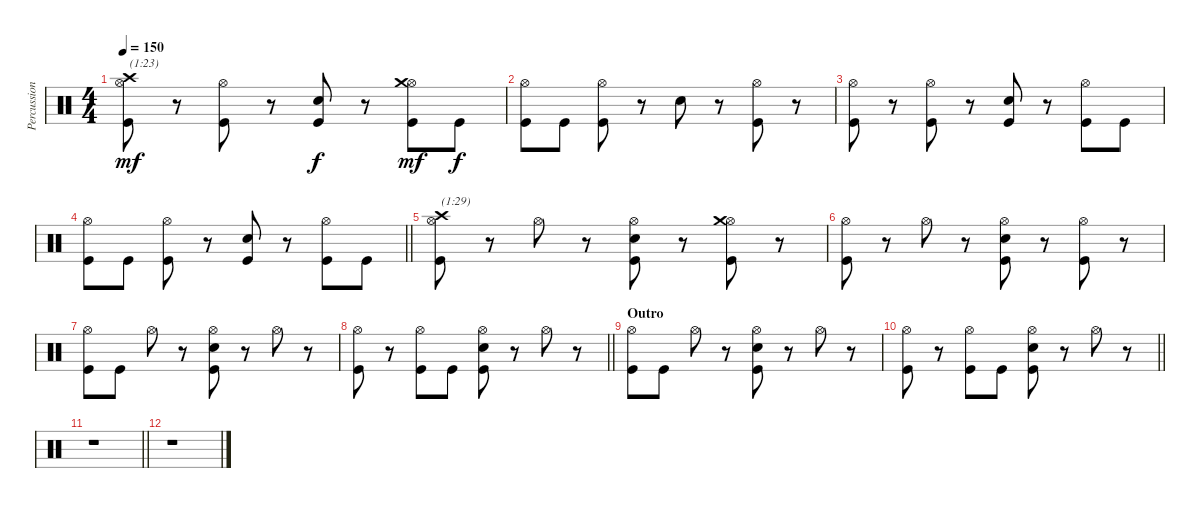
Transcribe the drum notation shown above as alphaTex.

\track ("Percussion" "Percussion") {instrument percussion}
\staff {score}
\articulation defaults
\ts (4 4)
\section ("" "")
\tempo 150
\clef neutral
\ks c
("Hi-Hat (open)" "Crash high (hit)" "Kick (hit)").8{txt "(1:23)" dy mf} r.8 ("Hi-Hat (open)" "Kick (hit)").8 r.8 ("Snare (hit) 2" "Kick (hit)").8{dy f} r.8 ("Hi-Hat (open)" "Crash medium (hit)" "Kick (hit)").8{dy mf} "Kick (hit)".8{dy f} |
("Hi-Hat (open)" "Kick (hit)").8 "Kick (hit)".8 ("Hi-Hat (open)" "Kick (hit)").8 r.8 "Snare (hit) 2".8 r.8 ("Hi-Hat (open)" "Kick (hit)").8 r.8 |
("Hi-Hat (open)" "Kick (hit)").8 r.8 ("Hi-Hat (open)" "Kick (hit)").8 r.8 ("Snare (hit) 2" "Kick (hit)").8 r.8 ("Hi-Hat (open)" "Kick (hit)").8 "Kick (hit)".8 |
\barLineRight lightlight
("Hi-Hat (open)" "Kick (hit)").8 "Kick (hit)".8 ("Hi-Hat (open)" "Kick (hit)").8 r.8 ("Snare (hit) 2" "Kick (hit)").8 r.8 ("Hi-Hat (open)" "Kick (hit)").8 "Kick (hit)".8 |
\section ("" "")
("Hi-Hat (open)" "Crash high (hit)" "Kick (hit)").8{txt "(1:29)"} r.8 "Hi-Hat (open)".8 r.8 ("Hi-Hat (open)" "Snare (hit) 2" "Kick (hit)").8 r.8 ("Hi-Hat (open)" "Crash medium (hit)" "Kick (hit)").8 r.8 |
("Hi-Hat (open)" "Kick (hit)").8 r.8 "Hi-Hat (open)".8 r.8 ("Hi-Hat (open)" "Snare (hit) 2" "Kick (hit)").8 r.8 ("Hi-Hat (open)" "Kick (hit)").8 r.8 |
("Hi-Hat (open)" "Kick (hit)").8 "Kick (hit)".8 "Hi-Hat (open)".8 r.8 ("Hi-Hat (open)" "Snare (hit) 2" "Kick (hit)").8 r.8 "Hi-Hat (open)".8 r.8 |
\barLineRight lightlight
("Hi-Hat (open)" "Kick (hit)").8 r.8 ("Hi-Hat (open)" "Kick (hit)").8 "Kick (hit)".8 ("Hi-Hat (open)" "Snare (hit) 2" "Kick (hit)").8 r.8 "Hi-Hat (open)".8 r.8 |
\section ("" "Outro")
("Hi-Hat (open)" "Kick (hit)").8 "Kick (hit)".8 "Hi-Hat (open)".8 r.8 ("Hi-Hat (open)" "Snare (hit) 2" "Kick (hit)").8 r.8 "Hi-Hat (open)".8 r.8 |
\barLineRight lightlight
("Hi-Hat (open)" "Kick (hit)").8 r.8 ("Hi-Hat (open)" "Kick (hit)").8 "Kick (hit)".8 ("Hi-Hat (open)" "Snare (hit) 2" "Kick (hit)").8 r.8 "Hi-Hat (open)".8 r.8 |
\barLineRight lightlight
r.1 |
r.1
